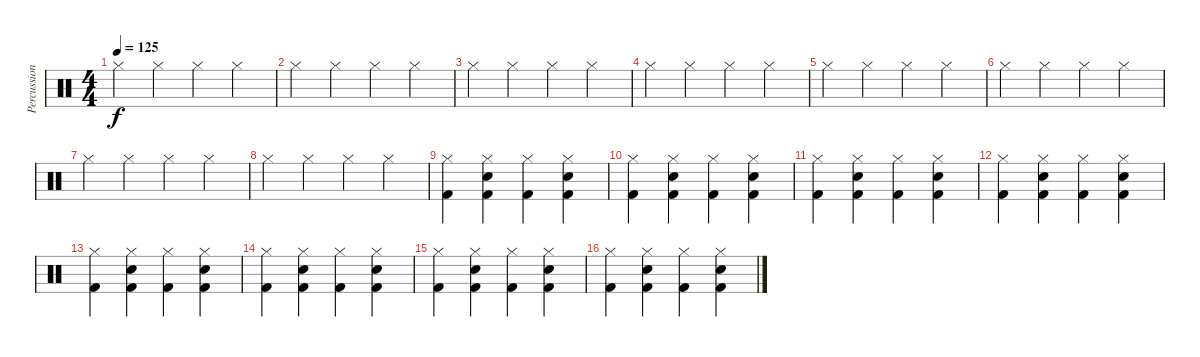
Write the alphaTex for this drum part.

\track ("Percussion" "Percussion") {instrument percussion}
\staff {score}
\articulation defaults
\ts (4 4)
\tempo 125
\clef neutral
\ks c "Hi-Hat (closed)".4{dy f} "Hi-Hat (closed)".4 "Hi-Hat (closed)".4 "Hi-Hat (closed)".4
|
"Hi-Hat (closed)".4 "Hi-Hat (closed)".4 "Hi-Hat (closed)".4 "Hi-Hat (closed)".4 |
"Hi-Hat (closed)".4 "Hi-Hat (closed)".4 "Hi-Hat (closed)".4 "Hi-Hat (closed)".4 |
"Hi-Hat (closed)".4 "Hi-Hat (closed)".4 "Hi-Hat (closed)".4 "Hi-Hat (closed)".4 |
"Hi-Hat (closed)".4 "Hi-Hat (closed)".4 "Hi-Hat (closed)".4 "Hi-Hat (closed)".4 |
"Hi-Hat (closed)".4 "Hi-Hat (closed)".4 "Hi-Hat (closed)".4 "Hi-Hat (closed)".4 |
"Hi-Hat (closed)".4 "Hi-Hat (closed)".4 "Hi-Hat (closed)".4 "Hi-Hat (closed)".4 |
"Hi-Hat (closed)".4 "Hi-Hat (closed)".4 "Hi-Hat (closed)".4 "Hi-Hat (closed)".4 |
("Hi-Hat (closed)" "Kick (hit) 2").4 ("Hi-Hat (closed)" "Hand Clap (hit)" "Kick (hit) 2").4 ("Hi-Hat (closed)" "Kick (hit) 2").4 ("Hi-Hat (closed)" "Hand Clap (hit)" "Kick (hit) 2").4 |
("Hi-Hat (closed)" "Kick (hit) 2").4 ("Hi-Hat (closed)" "Hand Clap (hit)" "Kick (hit) 2").4 ("Hi-Hat (closed)" "Kick (hit) 2").4 ("Hi-Hat (closed)" "Hand Clap (hit)" "Kick (hit) 2").4 |
("Hi-Hat (closed)" "Kick (hit) 2").4 ("Hi-Hat (closed)" "Hand Clap (hit)" "Kick (hit) 2").4 ("Hi-Hat (closed)" "Kick (hit) 2").4 ("Hi-Hat (closed)" "Hand Clap (hit)" "Kick (hit) 2").4 |
("Hi-Hat (closed)" "Kick (hit) 2").4 ("Hi-Hat (closed)" "Hand Clap (hit)" "Kick (hit) 2").4 ("Hi-Hat (closed)" "Kick (hit) 2").4 ("Hi-Hat (closed)" "Hand Clap (hit)" "Kick (hit) 2").4 |
("Hi-Hat (closed)" "Kick (hit) 2").4 ("Hi-Hat (closed)" "Hand Clap (hit)" "Kick (hit) 2").4 ("Hi-Hat (closed)" "Kick (hit) 2").4 ("Hi-Hat (closed)" "Hand Clap (hit)" "Kick (hit) 2").4 |
("Hi-Hat (closed)" "Kick (hit) 2").4 ("Hi-Hat (closed)" "Hand Clap (hit)" "Kick (hit) 2").4 ("Hi-Hat (closed)" "Kick (hit) 2").4 ("Hi-Hat (closed)" "Hand Clap (hit)" "Kick (hit) 2").4 |
("Hi-Hat (closed)" "Kick (hit) 2").4 ("Hi-Hat (closed)" "Hand Clap (hit)" "Kick (hit) 2").4 ("Hi-Hat (closed)" "Kick (hit) 2").4 ("Hi-Hat (closed)" "Hand Clap (hit)" "Kick (hit) 2").4 |
("Hi-Hat (closed)" "Kick (hit) 2").4 ("Hi-Hat (closed)" "Hand Clap (hit)" "Kick (hit) 2").4 ("Hi-Hat (closed)" "Kick (hit) 2").4 ("Hi-Hat (closed)" "Hand Clap (hit)" "Kick (hit) 2").4
